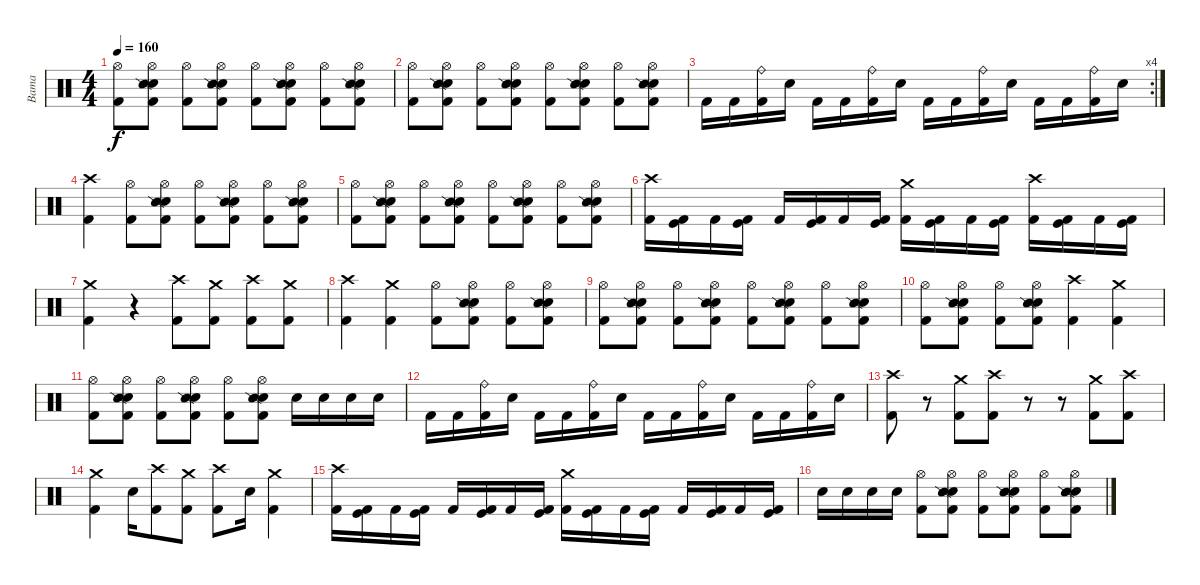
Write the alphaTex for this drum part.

\track ("Bama" "Bama") {instrument percussion}
\staff {score}
\articulation defaults
\ts (4 4)
\tempo 160
\clef neutral
\ks c
("Hi-Hat (open)" "Kick (hit) 2").8{dy f} ("Hi-Hat (open)" "Electric Snare (hit)" "Snare (side stick) 2" "Kick (hit) 2").8 ("Hi-Hat (open)" "Kick (hit) 2").8 ("Hi-Hat (open)" "Electric Snare (hit)" "Snare (side stick) 2" "Kick (hit) 2").8 ("Hi-Hat (open)" "Kick (hit) 2").8 ("Hi-Hat (open)" "Electric Snare (hit)" "Snare (side stick) 2" "Kick (hit) 2").8 ("Hi-Hat (open)" "Kick (hit) 2").8 ("Hi-Hat (open)" "Electric Snare (hit)" "Snare (side stick) 2" "Kick (hit) 2").8 |
("Hi-Hat (open)" "Kick (hit) 2").8 ("Hi-Hat (open)" "Electric Snare (hit)" "Snare (side stick) 2" "Kick (hit) 2").8 ("Hi-Hat (open)" "Kick (hit) 2").8 ("Hi-Hat (open)" "Electric Snare (hit)" "Snare (side stick) 2" "Kick (hit) 2").8 ("Hi-Hat (open)" "Kick (hit) 2").8 ("Hi-Hat (open)" "Electric Snare (hit)" "Snare (side stick) 2" "Kick (hit) 2").8 ("Hi-Hat (open)" "Kick (hit) 2").8 ("Hi-Hat (open)" "Electric Snare (hit)" "Snare (side stick) 2" "Kick (hit) 2").8 |
\rc 4 "Kick (hit) 2".16 "Kick (hit) 2".16
("Ride (bell)" "Kick (hit) 2").16 "Electric Snare (hit)".16 "Kick (hit) 2".16 "Kick (hit) 2".16 ("Ride (bell)" "Kick (hit) 2").16 "Electric Snare (hit)".16 "Kick (hit) 2".16 "Kick (hit) 2".16 ("Ride (bell)" "Kick (hit) 2").16 "Electric Snare (hit)".16 "Kick (hit) 2".16 "Kick (hit) 2".16 ("Ride (bell)" "Kick (hit) 2").16 "Electric Snare (hit)".16 |
("Crash high (hit)" "Kick (hit) 2").4 ("Hi-Hat (open)" "Kick (hit) 2").8 ("Hi-Hat (open)" "Electric Snare (hit)" "Snare (side stick) 2" "Kick (hit) 2").8 ("Hi-Hat (open)" "Kick (hit) 2").8 ("Hi-Hat (open)" "Electric Snare (hit)" "Snare (side stick) 2" "Kick (hit) 2").8 ("Hi-Hat (open)" "Kick (hit) 2").8 ("Hi-Hat (open)" "Electric Snare (hit)" "Snare (side stick) 2" "Kick (hit) 2").8 |
("Hi-Hat (open)" "Kick (hit) 2").8 ("Hi-Hat (open)" "Electric Snare (hit)" "Snare (side stick) 2" "Kick (hit) 2").8 ("Hi-Hat (open)" "Kick (hit) 2").8 ("Hi-Hat (open)" "Electric Snare (hit)" "Snare (side stick) 2" "Kick (hit) 2").8 ("Hi-Hat (open)" "Kick (hit) 2").8 ("Hi-Hat (open)" "Electric Snare (hit)" "Snare (side stick) 2" "Kick (hit) 2").8 ("Hi-Hat (open)" "Kick (hit) 2").8 ("Hi-Hat (open)" "Electric Snare (hit)" "Snare (side stick) 2" "Kick (hit) 2").8 |
("Crash high (hit)" "Kick (hit) 2").16 ("Kick (hit)" "Kick (hit) 2").16 "Kick (hit) 2".16 ("Kick (hit)" "Kick (hit) 2").16 "Kick (hit) 2".16 ("Kick (hit)" "Kick (hit) 2").16 "Kick (hit) 2".16 ("Kick (hit)" "Kick (hit) 2").16 ("Crash medium (hit)" "Kick (hit) 2").16 ("Kick (hit)" "Kick (hit) 2").16 "Kick (hit) 2".16 ("Kick (hit)" "Kick (hit) 2").16 ("Crash high (hit)" "Kick (hit) 2").16 ("Kick (hit)" "Kick (hit) 2").16 "Kick (hit) 2".16 ("Kick (hit)" "Kick (hit) 2").16 |
("Crash medium (hit)" "Kick (hit) 2").4 r.4 ("Crash high (hit)" "Kick (hit) 2").8 ("Crash medium (hit)" "Kick (hit) 2").8 ("Crash high (hit)" "Kick (hit) 2").8 ("Crash medium (hit)" "Kick (hit) 2").8 |
("Crash high (hit)" "Kick (hit) 2").4 ("Crash medium (hit)" "Kick (hit) 2").4 ("Hi-Hat (open)" "Kick (hit) 2").8 ("Hi-Hat (open)" "Electric Snare (hit)" "Snare (side stick) 2" "Kick (hit) 2").8 ("Hi-Hat (open)" "Kick (hit) 2").8 ("Hi-Hat (open)" "Electric Snare (hit)" "Snare (side stick) 2" "Kick (hit) 2").8 |
("Hi-Hat (open)" "Kick (hit) 2").8 ("Hi-Hat (open)" "Electric Snare (hit)" "Snare (side stick) 2" "Kick (hit) 2").8 ("Hi-Hat (open)" "Kick (hit) 2").8 ("Hi-Hat (open)" "Electric Snare (hit)" "Snare (side stick) 2" "Kick (hit) 2").8 ("Hi-Hat (open)" "Kick (hit) 2").8 ("Hi-Hat (open)" "Electric Snare (hit)" "Snare (side stick) 2" "Kick (hit) 2").8 ("Hi-Hat (open)" "Kick (hit) 2").8 ("Hi-Hat (open)" "Electric Snare (hit)" "Snare (side stick) 2" "Kick (hit) 2").8 |
("Hi-Hat (open)" "Kick (hit) 2").8 ("Hi-Hat (open)" "Electric Snare (hit)" "Snare (side stick) 2" "Kick (hit) 2").8 ("Hi-Hat (open)" "Kick (hit) 2").8 ("Hi-Hat (open)" "Electric Snare (hit)" "Snare (side stick) 2" "Kick (hit) 2").8 ("Crash high (hit)" "Kick (hit) 2").4 ("Crash medium (hit)" "Kick (hit) 2").4 |
("Hi-Hat (open)" "Kick (hit) 2").8 ("Hi-Hat (open)" "Electric Snare (hit)" "Snare (side stick) 2" "Kick (hit) 2").8 ("Hi-Hat (open)" "Kick (hit) 2").8 ("Hi-Hat (open)" "Electric Snare (hit)" "Snare (side stick) 2" "Kick (hit) 2").8 ("Hi-Hat (open)" "Kick (hit) 2").8 ("Hi-Hat (open)" "Electric Snare (hit)" "Snare (side stick) 2" "Kick (hit) 2").8 "Electric Snare (hit)".16 "Electric Snare (hit)".16 "Electric Snare (hit)".16 "Electric Snare (hit)".16 |
"Kick (hit) 2".16 "Kick (hit) 2".16 ("Ride (bell)" "Kick (hit) 2").16 "Electric Snare (hit)".16 "Kick (hit) 2".16 "Kick (hit) 2".16 ("Ride (bell)" "Kick (hit) 2").16 "Electric Snare (hit)".16 "Kick (hit) 2".16 "Kick (hit) 2".16 ("Ride (bell)" "Kick (hit) 2").16 "Electric Snare (hit)".16 "Kick (hit) 2".16 "Kick (hit) 2".16 ("Ride (bell)" "Kick (hit) 2").16 "Electric Snare (hit)".16 |
("Crash high (hit)" "Kick (hit) 2").8 r.8 ("Crash medium (hit)" "Kick (hit) 2").8 ("Crash high (hit)" "Kick (hit) 2").8 r.8 r.8 ("Crash medium (hit)" "Kick (hit) 2").8 ("Crash high (hit)" "Kick (hit) 2").8 |
("Crash medium (hit)" "Kick (hit) 2").4 "Electric Snare (hit)".16 ("Crash high (hit)" "Kick (hit) 2").8 ("Crash medium (hit)" "Kick (hit) 2").8 ("Crash high (hit)" "Kick (hit) 2").8 "Electric Snare (hit)".16 ("Crash medium (hit)" "Kick (hit) 2").4 |
("Crash high (hit)" "Kick (hit) 2").16 ("Kick (hit)" "Kick (hit) 2").16 "Kick (hit) 2".16 ("Kick (hit)" "Kick (hit) 2").16 "Kick (hit) 2".16 ("Kick (hit)" "Kick (hit) 2").16 "Kick (hit) 2".16 ("Kick (hit)" "Kick (hit) 2").16 ("Crash medium (hit)" "Kick (hit) 2").16 ("Kick (hit)" "Kick (hit) 2").16 "Kick (hit) 2".16 ("Kick (hit)" "Kick (hit) 2").16 "Kick (hit) 2".16 ("Kick (hit)" "Kick (hit) 2").16 "Kick (hit) 2".16 ("Kick (hit)" "Kick (hit) 2").16 |
"Electric Snare (hit)".16 "Electric Snare (hit)".16 "Electric Snare (hit)".16 "Electric Snare (hit)".16 ("Hi-Hat (open)" "Kick (hit) 2").8 ("Hi-Hat (open)" "Electric Snare (hit)" "Snare (side stick) 2" "Kick (hit) 2").8 ("Hi-Hat (open)" "Kick (hit) 2").8 ("Hi-Hat (open)" "Electric Snare (hit)" "Snare (side stick) 2" "Kick (hit) 2").8 ("Hi-Hat (open)" "Kick (hit) 2").8 ("Hi-Hat (open)" "Electric Snare (hit)" "Snare (side stick) 2" "Kick (hit) 2").8
